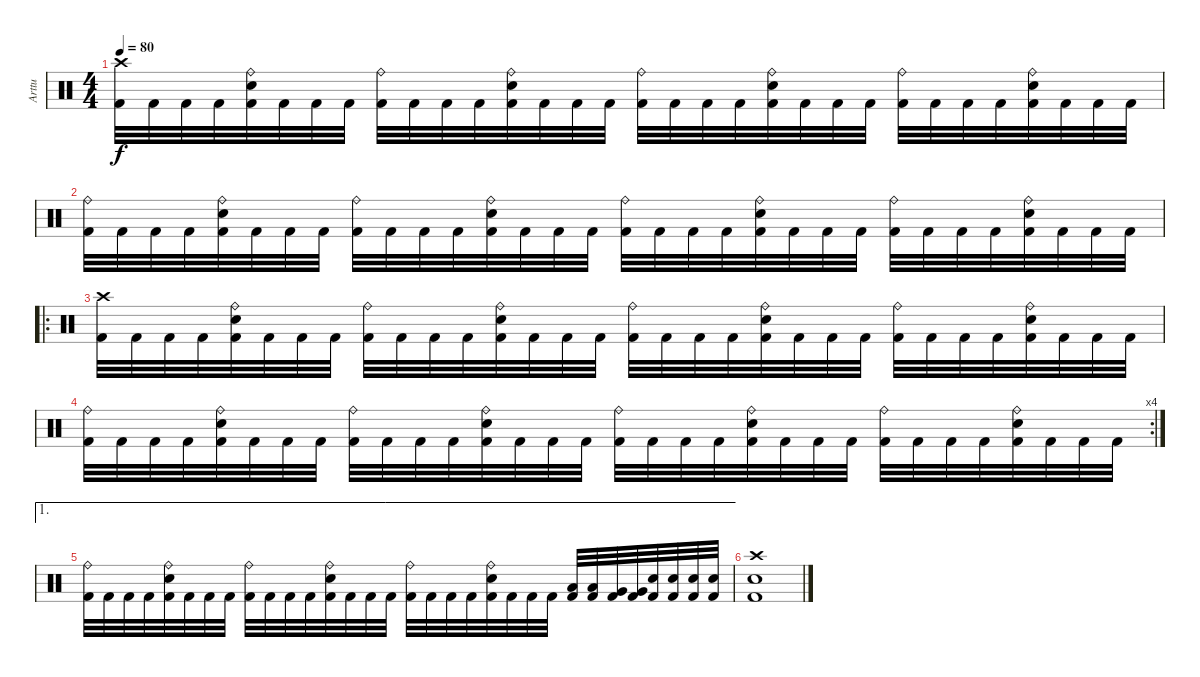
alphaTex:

\track ("Arttu" "Arttu") {instrument percussion}
\staff {score}
\articulation defaults
\ts (4 4)
\tempo 80
\clef neutral
\ks c
("Kick (hit) 2" "Crash high (hit)").32{dy f} "Kick (hit) 2".32 "Kick (hit) 2".32 "Kick (hit) 2".32 ("Kick (hit) 2" "Electric Snare (hit)" "Ride (bell)").32 "Kick (hit) 2".32 "Kick (hit) 2".32 "Kick (hit) 2".32 ("Kick (hit) 2" "Ride (bell)").32 "Kick (hit) 2".32 "Kick (hit) 2".32 "Kick (hit) 2".32 ("Kick (hit) 2" "Electric Snare (hit)" "Ride (bell)").32 "Kick (hit) 2".32 "Kick (hit) 2".32 "Kick (hit) 2".32 ("Kick (hit) 2" "Ride (bell)").32 "Kick (hit) 2".32 "Kick (hit) 2".32 "Kick (hit) 2".32 ("Kick (hit) 2" "Electric Snare (hit)" "Ride (bell)").32 "Kick (hit) 2".32 "Kick (hit) 2".32 "Kick (hit) 2".32 ("Kick (hit) 2" "Ride (bell)").32 "Kick (hit) 2".32 "Kick (hit) 2".32 "Kick (hit) 2".32 ("Kick (hit) 2" "Electric Snare (hit)" "Ride (bell)").32 "Kick (hit) 2".32 "Kick (hit) 2".32 "Kick (hit) 2".32 |
("Kick (hit) 2" "Ride (bell)").32 "Kick (hit) 2".32 "Kick (hit) 2".32 "Kick (hit) 2".32 ("Kick (hit) 2" "Electric Snare (hit)" "Ride (bell)").32 "Kick (hit) 2".32 "Kick (hit) 2".32 "Kick (hit) 2".32 ("Kick (hit) 2" "Ride (bell)").32 "Kick (hit) 2".32 "Kick (hit) 2".32 "Kick (hit) 2".32 ("Kick (hit) 2" "Electric Snare (hit)" "Ride (bell)").32 "Kick (hit) 2".32 "Kick (hit) 2".32 "Kick (hit) 2".32 ("Kick (hit) 2" "Ride (bell)").32 "Kick (hit) 2".32 "Kick (hit) 2".32 "Kick (hit) 2".32 ("Kick (hit) 2" "Electric Snare (hit)" "Ride (bell)").32 "Kick (hit) 2".32 "Kick (hit) 2".32 "Kick (hit) 2".32 ("Kick (hit) 2" "Ride (bell)").32 "Kick (hit) 2".32 "Kick (hit) 2".32 "Kick (hit) 2".32 ("Kick (hit) 2" "Electric Snare (hit)" "Ride (bell)").32 "Kick (hit) 2".32 "Kick (hit) 2".32 "Kick (hit) 2".32 |
\ro
("Kick (hit) 2" "Crash high (hit)").32 "Kick (hit) 2".32 "Kick (hit) 2".32 "Kick (hit) 2".32 ("Kick (hit) 2" "Electric Snare (hit)" "Ride (bell)").32 "Kick (hit) 2".32 "Kick (hit) 2".32 "Kick (hit) 2".32 ("Kick (hit) 2" "Ride (bell)").32 "Kick (hit) 2".32 "Kick (hit) 2".32 "Kick (hit) 2".32 ("Kick (hit) 2" "Electric Snare (hit)" "Ride (bell)").32 "Kick (hit) 2".32 "Kick (hit) 2".32 "Kick (hit) 2".32 ("Kick (hit) 2" "Ride (bell)").32 "Kick (hit) 2".32 "Kick (hit) 2".32 "Kick (hit) 2".32 ("Kick (hit) 2" "Electric Snare (hit)" "Ride (bell)").32 "Kick (hit) 2".32 "Kick (hit) 2".32 "Kick (hit) 2".32 ("Kick (hit) 2" "Ride (bell)").32 "Kick (hit) 2".32 "Kick (hit) 2".32 "Kick (hit) 2".32 ("Kick (hit) 2" "Electric Snare (hit)" "Ride (bell)").32 "Kick (hit) 2".32 "Kick (hit) 2".32 "Kick (hit) 2".32 |
\rc 4
("Kick (hit) 2" "Ride (bell)").32 "Kick (hit) 2".32 "Kick (hit) 2".32 "Kick (hit) 2".32 ("Kick (hit) 2" "Electric Snare (hit)" "Ride (bell)").32 "Kick (hit) 2".32 "Kick (hit) 2".32 "Kick (hit) 2".32 ("Kick (hit) 2" "Ride (bell)").32 "Kick (hit) 2".32 "Kick (hit) 2".32 "Kick (hit) 2".32 ("Kick (hit) 2" "Electric Snare (hit)" "Ride (bell)").32 "Kick (hit) 2".32 "Kick (hit) 2".32 "Kick (hit) 2".32 ("Kick (hit) 2" "Ride (bell)").32 "Kick (hit) 2".32 "Kick (hit) 2".32 "Kick (hit) 2".32 ("Kick (hit) 2" "Electric Snare (hit)" "Ride (bell)").32 "Kick (hit) 2".32 "Kick (hit) 2".32 "Kick (hit) 2".32 ("Kick (hit) 2" "Ride (bell)").32 "Kick (hit) 2".32 "Kick (hit) 2".32 "Kick (hit) 2".32 ("Kick (hit) 2" "Electric Snare (hit)" "Ride (bell)").32 "Kick (hit) 2".32 "Kick (hit) 2".32 "Kick (hit) 2".32 |
\ae 1
("Kick (hit) 2" "Ride (bell)").32 "Kick (hit) 2".32 "Kick (hit) 2".32 "Kick (hit) 2".32 ("Kick (hit) 2" "Electric Snare (hit)" "Ride (bell)").32 "Kick (hit) 2".32 "Kick (hit) 2".32 "Kick (hit) 2".32 ("Kick (hit) 2" "Ride (bell)").32 "Kick (hit) 2".32 "Kick (hit) 2".32 "Kick (hit) 2".32 ("Kick (hit) 2" "Electric Snare (hit)" "Ride (bell)").32 "Kick (hit) 2".32 "Kick (hit) 2".32 "Kick (hit) 2".32 ("Kick (hit) 2" "Ride (bell)").32 "Kick (hit) 2".32 "Kick (hit) 2".32 "Kick (hit) 2".32 ("Kick (hit) 2" "Electric Snare (hit)" "Ride (bell)").32 "Kick (hit) 2".32 "Kick (hit) 2".32 "Kick (hit) 2".32 ("Kick (hit) 2" "Low Floor Tom (hit)").32 ("Kick (hit) 2" "Low Floor Tom (hit)").32 ("Kick (hit) 2" "Very Low Tom (hit)").32 ("Kick (hit) 2" "Very Low Tom (hit)").32 ("Kick (hit) 2" "Electric Snare (hit)").32 ("Kick (hit) 2" "Electric Snare (hit)").32 ("Kick (hit) 2" "Electric Snare (hit)").32 ("Kick (hit) 2" "Electric Snare (hit)").32 |
("Crash high (hit)" "Kick (hit) 2" "Electric Snare (hit)").1
